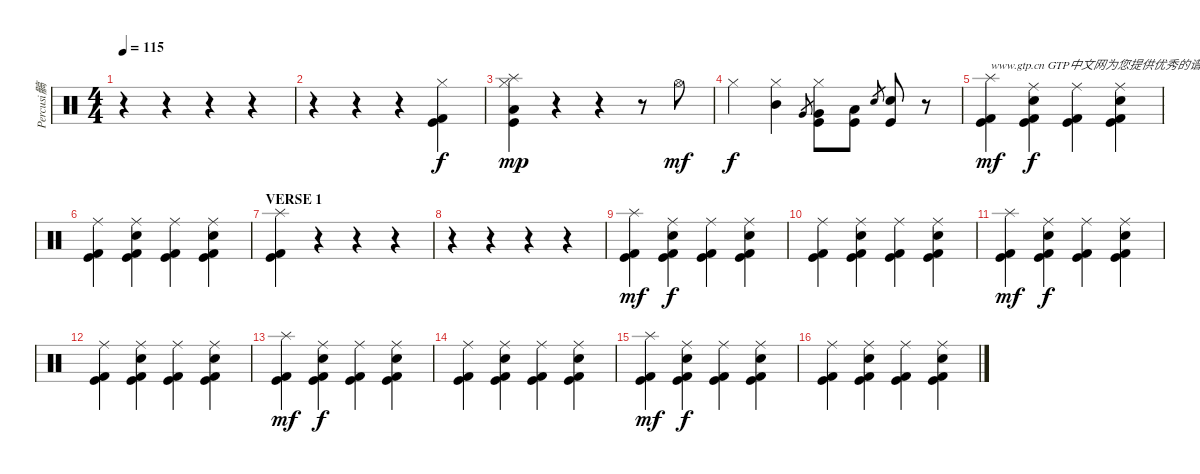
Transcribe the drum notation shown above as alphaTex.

\track ("Percusi髇" "Percusi髇") {instrument percussion}
\staff {score}
\articulation defaults
\ts (4 4)
\tempo 115
\clef neutral
\ks c
r.4{dy f} r.4 r.4 r.4 |
r.4 r.4 r.4 ("Hi-Hat (closed)" "Kick (hit) 2" "Kick (hit)").4 |
("Splash (hit)" "Hi-Hat (closed)" "Low Tom (hit)" "Kick (hit)").4{dy mp} r.4 r.4 r.8 "Hi-Hat (open)".8{dy mf} |
"Hi-Hat (closed)".4{dy f} ("Hi-Hat (closed)" "Mid Tom (hit)").4 "Very Low Tom (hit)".8{gr} ("Hi-Hat (closed)" "Very Low Tom (hit)" "Kick (hit)").8 ("Low Tom (hit)" "Kick (hit)").8 "Electric Snare (hit)".8{gr} ("Electric Snare (hit)" "Kick (hit)").8 r.8 |
("Splash (hit)" "Kick (hit) 2" "Kick (hit)").4{txt "www.gtp.cn GTP中文网为您提供优秀的谱子" dy mf} ("Ride (middle)" "Electric Snare (hit)" "Kick (hit) 2" "Kick (hit)").4{dy f} ("Ride (middle)" "Kick (hit) 2" "Kick (hit)").4 ("Ride (middle)" "Electric Snare (hit)" "Kick (hit) 2" "Kick (hit)").4 |
("Ride (middle)" "Kick (hit) 2" "Kick (hit)").4 ("Ride (middle)" "Electric Snare (hit)" "Kick (hit) 2" "Kick (hit)").4 ("Ride (middle)" "Kick (hit) 2" "Kick (hit)").4 ("Ride (middle)" "Electric Snare (hit)" "Kick (hit) 2" "Kick (hit)").4 |
\section ("" "VERSE 1")
("Kick (hit)" "Kick (hit) 2" "Splash (hit)").4 r.4 r.4 r.4 |
r.4 r.4 r.4 r.4 |
("Splash (hit)" "Kick (hit) 2" "Kick (hit)").4{dy mf} ("Ride (middle)" "Electric Snare (hit)" "Kick (hit) 2" "Kick (hit)").4{dy f} ("Ride (middle)" "Kick (hit) 2" "Kick (hit)").4 ("Ride (middle)" "Electric Snare (hit)" "Kick (hit) 2" "Kick (hit)").4 |
("Ride (middle)" "Kick (hit) 2" "Kick (hit)").4 ("Ride (middle)" "Electric Snare (hit)" "Kick (hit) 2" "Kick (hit)").4 ("Ride (middle)" "Kick (hit) 2" "Kick (hit)").4 ("Ride (middle)" "Electric Snare (hit)" "Kick (hit) 2" "Kick (hit)").4 |
("Splash (hit)" "Kick (hit) 2" "Kick (hit)").4{dy mf} ("Ride (middle)" "Electric Snare (hit)" "Kick (hit) 2" "Kick (hit)").4{dy f} ("Ride (middle)" "Kick (hit) 2" "Kick (hit)").4 ("Ride (middle)" "Electric Snare (hit)" "Kick (hit) 2" "Kick (hit)").4 |
("Ride (middle)" "Kick (hit) 2" "Kick (hit)").4 ("Ride (middle)" "Electric Snare (hit)" "Kick (hit) 2" "Kick (hit)").4 ("Ride (middle)" "Kick (hit) 2" "Kick (hit)").4 ("Ride (middle)" "Electric Snare (hit)" "Kick (hit) 2" "Kick (hit)").4 |
("Splash (hit)" "Kick (hit) 2" "Kick (hit)").4{dy mf} ("Ride (middle)" "Electric Snare (hit)" "Kick (hit) 2" "Kick (hit)").4{dy f} ("Ride (middle)" "Kick (hit) 2" "Kick (hit)").4 ("Ride (middle)" "Electric Snare (hit)" "Kick (hit) 2" "Kick (hit)").4 |
("Ride (middle)" "Kick (hit) 2" "Kick (hit)").4 ("Ride (middle)" "Electric Snare (hit)" "Kick (hit) 2" "Kick (hit)").4 ("Ride (middle)" "Kick (hit) 2" "Kick (hit)").4 ("Ride (middle)" "Electric Snare (hit)" "Kick (hit) 2" "Kick (hit)").4 |
("Splash (hit)" "Kick (hit) 2" "Kick (hit)").4{dy mf} ("Ride (middle)" "Electric Snare (hit)" "Kick (hit) 2" "Kick (hit)").4{dy f} ("Ride (middle)" "Kick (hit) 2" "Kick (hit)").4 ("Ride (middle)" "Electric Snare (hit)" "Kick (hit) 2" "Kick (hit)").4 |
("Ride (middle)" "Kick (hit) 2" "Kick (hit)").4 ("Ride (middle)" "Electric Snare (hit)" "Kick (hit) 2" "Kick (hit)").4 ("Ride (middle)" "Kick (hit) 2" "Kick (hit)").4 ("Ride (middle)" "Electric Snare (hit)" "Kick (hit) 2" "Kick (hit)").4
